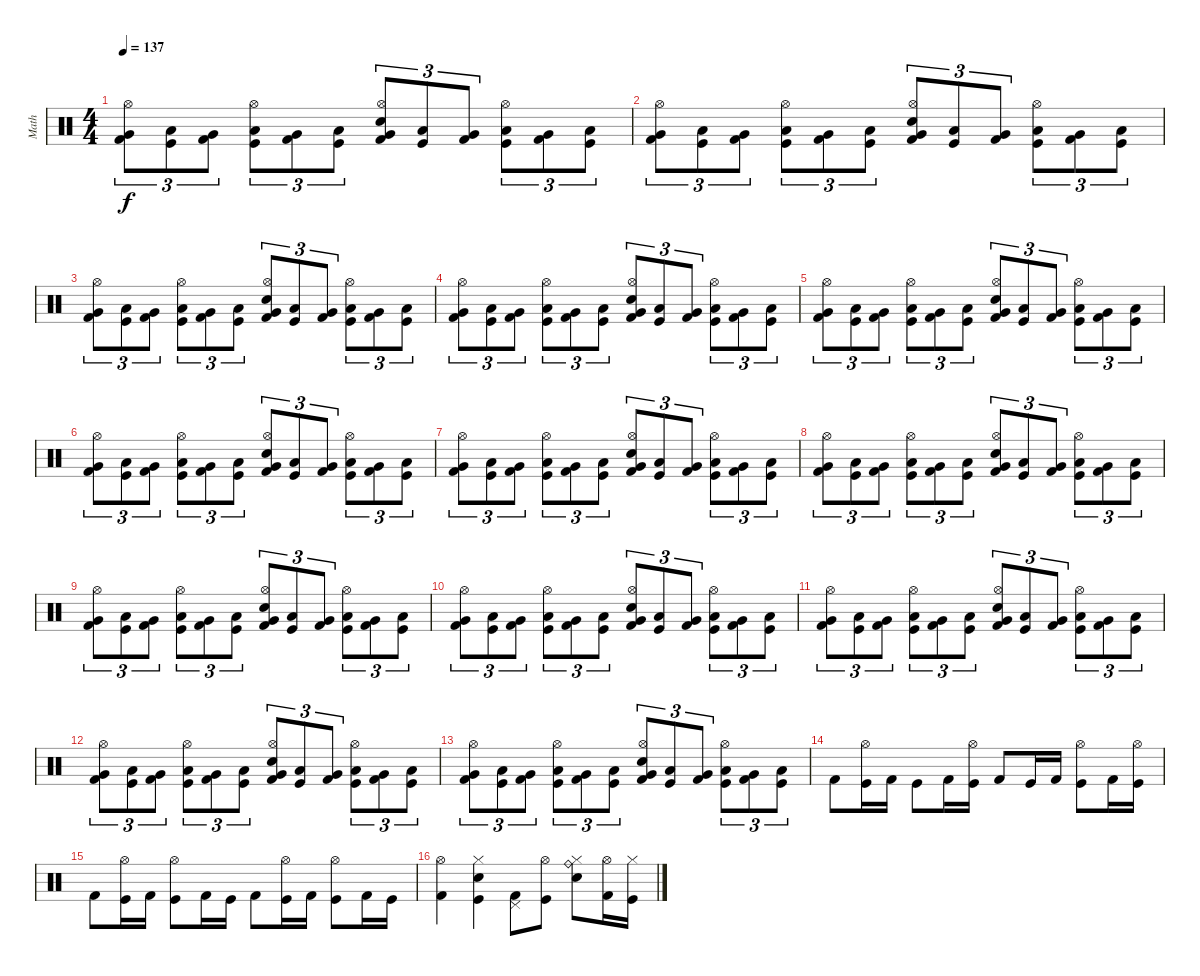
\track ("Math" "Math") {instrument percussion}
\staff {score}
\articulation defaults
\ts (4 4)
\tempo 137
\clef neutral
\ks c
("Kick (hit) 2" "Very Low Tom (hit)" "Hi-Hat (open)").8{tu (3 2) dy f} ("Kick (hit)" "Low Tom (hit)").8{tu (3 2)} ("Kick (hit) 2" "Very Low Tom (hit)").8{tu (3 2)} ("Kick (hit)" "Low Tom (hit)" "Hi-Hat (open)").8{tu (3 2)} ("Kick (hit) 2" "Very Low Tom (hit)").8{tu (3 2)} ("Kick (hit)" "Low Tom (hit)").8{tu (3 2)} ("Kick (hit) 2" "Very Low Tom (hit)" "Snare (hit) 2" "Hi-Hat (open)").8{tu (3 2)} ("Kick (hit)" "Low Tom (hit)").8{tu (3 2)} ("Kick (hit) 2" "Very Low Tom (hit)").8{tu (3 2)} ("Kick (hit)" "Low Tom (hit)" "Hi-Hat (open)").8{tu (3 2)} ("Kick (hit) 2" "Very Low Tom (hit)").8{tu (3 2)} ("Kick (hit)" "Low Tom (hit)").8{tu (3 2)} |
("Kick (hit) 2" "Very Low Tom (hit)" "Hi-Hat (open)").8{tu (3 2)} ("Kick (hit)" "Low Tom (hit)").8{tu (3 2)} ("Kick (hit) 2" "Very Low Tom (hit)").8{tu (3 2)} ("Kick (hit)" "Low Tom (hit)" "Hi-Hat (open)").8{tu (3 2)} ("Kick (hit) 2" "Very Low Tom (hit)").8{tu (3 2)} ("Kick (hit)" "Low Tom (hit)").8{tu (3 2)} ("Kick (hit) 2" "Very Low Tom (hit)" "Snare (hit) 2" "Hi-Hat (open)").8{tu (3 2)} ("Kick (hit)" "Low Tom (hit)").8{tu (3 2)} ("Kick (hit) 2" "Very Low Tom (hit)").8{tu (3 2)} ("Kick (hit)" "Low Tom (hit)" "Hi-Hat (open)").8{tu (3 2)} ("Kick (hit) 2" "Very Low Tom (hit)").8{tu (3 2)} ("Kick (hit)" "Low Tom (hit)").8{tu (3 2)} |
("Kick (hit) 2" "Very Low Tom (hit)" "Hi-Hat (open)").8{tu (3 2)} ("Kick (hit)" "Low Tom (hit)").8{tu (3 2)} ("Kick (hit) 2" "Very Low Tom (hit)").8{tu (3 2)} ("Kick (hit)" "Low Tom (hit)" "Hi-Hat (open)").8{tu (3 2)} ("Kick (hit) 2" "Very Low Tom (hit)").8{tu (3 2)} ("Kick (hit)" "Low Tom (hit)").8{tu (3 2)} ("Kick (hit) 2" "Very Low Tom (hit)" "Snare (hit) 2" "Hi-Hat (open)").8{tu (3 2)} ("Kick (hit)" "Low Tom (hit)").8{tu (3 2)} ("Kick (hit) 2" "Very Low Tom (hit)").8{tu (3 2)} ("Kick (hit)" "Low Tom (hit)" "Hi-Hat (open)").8{tu (3 2)} ("Kick (hit) 2" "Very Low Tom (hit)").8{tu (3 2)} ("Kick (hit)" "Low Tom (hit)").8{tu (3 2)} |
("Kick (hit) 2" "Very Low Tom (hit)" "Hi-Hat (open)").8{tu (3 2)} ("Kick (hit)" "Low Tom (hit)").8{tu (3 2)} ("Kick (hit) 2" "Very Low Tom (hit)").8{tu (3 2)} ("Kick (hit)" "Low Tom (hit)" "Hi-Hat (open)").8{tu (3 2)} ("Kick (hit) 2" "Very Low Tom (hit)").8{tu (3 2)} ("Kick (hit)" "Low Tom (hit)").8{tu (3 2)} ("Kick (hit) 2" "Very Low Tom (hit)" "Snare (hit) 2" "Hi-Hat (open)").8{tu (3 2)} ("Kick (hit)" "Low Tom (hit)").8{tu (3 2)} ("Kick (hit) 2" "Very Low Tom (hit)").8{tu (3 2)} ("Kick (hit)" "Low Tom (hit)" "Hi-Hat (open)").8{tu (3 2)} ("Kick (hit) 2" "Very Low Tom (hit)").8{tu (3 2)} ("Kick (hit)" "Low Tom (hit)").8{tu (3 2)} |
("Kick (hit) 2" "Very Low Tom (hit)" "Hi-Hat (open)").8{tu (3 2)} ("Kick (hit)" "Low Tom (hit)").8{tu (3 2)} ("Kick (hit) 2" "Very Low Tom (hit)").8{tu (3 2)} ("Kick (hit)" "Low Tom (hit)" "Hi-Hat (open)").8{tu (3 2)} ("Kick (hit) 2" "Very Low Tom (hit)").8{tu (3 2)} ("Kick (hit)" "Low Tom (hit)").8{tu (3 2)} ("Kick (hit) 2" "Very Low Tom (hit)" "Snare (hit) 2" "Hi-Hat (open)").8{tu (3 2)} ("Kick (hit)" "Low Tom (hit)").8{tu (3 2)} ("Kick (hit) 2" "Very Low Tom (hit)").8{tu (3 2)} ("Kick (hit)" "Low Tom (hit)" "Hi-Hat (open)").8{tu (3 2)} ("Kick (hit) 2" "Very Low Tom (hit)").8{tu (3 2)} ("Kick (hit)" "Low Tom (hit)").8{tu (3 2)} |
("Kick (hit) 2" "Very Low Tom (hit)" "Hi-Hat (open)").8{tu (3 2)} ("Kick (hit)" "Low Tom (hit)").8{tu (3 2)} ("Kick (hit) 2" "Very Low Tom (hit)").8{tu (3 2)} ("Kick (hit)" "Low Tom (hit)" "Hi-Hat (open)").8{tu (3 2)} ("Kick (hit) 2" "Very Low Tom (hit)").8{tu (3 2)} ("Kick (hit)" "Low Tom (hit)").8{tu (3 2)} ("Kick (hit) 2" "Very Low Tom (hit)" "Snare (hit) 2" "Hi-Hat (open)").8{tu (3 2)} ("Kick (hit)" "Low Tom (hit)").8{tu (3 2)} ("Kick (hit) 2" "Very Low Tom (hit)").8{tu (3 2)} ("Kick (hit)" "Low Tom (hit)" "Hi-Hat (open)").8{tu (3 2)} ("Kick (hit) 2" "Very Low Tom (hit)").8{tu (3 2)} ("Kick (hit)" "Low Tom (hit)").8{tu (3 2)} |
("Kick (hit) 2" "Very Low Tom (hit)" "Hi-Hat (open)").8{tu (3 2)} ("Kick (hit)" "Low Tom (hit)").8{tu (3 2)} ("Kick (hit) 2" "Very Low Tom (hit)").8{tu (3 2)} ("Kick (hit)" "Low Tom (hit)" "Hi-Hat (open)").8{tu (3 2)} ("Kick (hit) 2" "Very Low Tom (hit)").8{tu (3 2)} ("Kick (hit)" "Low Tom (hit)").8{tu (3 2)} ("Kick (hit) 2" "Very Low Tom (hit)" "Snare (hit) 2" "Hi-Hat (open)").8{tu (3 2)} ("Kick (hit)" "Low Tom (hit)").8{tu (3 2)} ("Kick (hit) 2" "Very Low Tom (hit)").8{tu (3 2)} ("Kick (hit)" "Low Tom (hit)" "Hi-Hat (open)").8{tu (3 2)} ("Kick (hit) 2" "Very Low Tom (hit)").8{tu (3 2)} ("Kick (hit)" "Low Tom (hit)").8{tu (3 2)} |
("Kick (hit) 2" "Very Low Tom (hit)" "Hi-Hat (open)").8{tu (3 2)} ("Kick (hit)" "Low Tom (hit)").8{tu (3 2)} ("Kick (hit) 2" "Very Low Tom (hit)").8{tu (3 2)} ("Kick (hit)" "Low Tom (hit)" "Hi-Hat (open)").8{tu (3 2)} ("Kick (hit) 2" "Very Low Tom (hit)").8{tu (3 2)} ("Kick (hit)" "Low Tom (hit)").8{tu (3 2)} ("Kick (hit) 2" "Very Low Tom (hit)" "Snare (hit) 2" "Hi-Hat (open)").8{tu (3 2)} ("Kick (hit)" "Low Tom (hit)").8{tu (3 2)} ("Kick (hit) 2" "Very Low Tom (hit)").8{tu (3 2)} ("Kick (hit)" "Low Tom (hit)" "Hi-Hat (open)").8{tu (3 2)} ("Kick (hit) 2" "Very Low Tom (hit)").8{tu (3 2)} ("Kick (hit)" "Low Tom (hit)").8{tu (3 2)} |
("Kick (hit) 2" "Very Low Tom (hit)" "Hi-Hat (open)").8{tu (3 2)} ("Kick (hit)" "Low Tom (hit)").8{tu (3 2)} ("Kick (hit) 2" "Very Low Tom (hit)").8{tu (3 2)} ("Kick (hit)" "Low Tom (hit)" "Hi-Hat (open)").8{tu (3 2)} ("Kick (hit) 2" "Very Low Tom (hit)").8{tu (3 2)} ("Kick (hit)" "Low Tom (hit)").8{tu (3 2)} ("Kick (hit) 2" "Very Low Tom (hit)" "Snare (hit) 2" "Hi-Hat (open)").8{tu (3 2)} ("Kick (hit)" "Low Tom (hit)").8{tu (3 2)} ("Kick (hit) 2" "Very Low Tom (hit)").8{tu (3 2)} ("Kick (hit)" "Low Tom (hit)" "Hi-Hat (open)").8{tu (3 2)} ("Kick (hit) 2" "Very Low Tom (hit)").8{tu (3 2)} ("Kick (hit)" "Low Tom (hit)").8{tu (3 2)} |
("Kick (hit) 2" "Very Low Tom (hit)" "Hi-Hat (open)").8{tu (3 2)} ("Kick (hit)" "Low Tom (hit)").8{tu (3 2)} ("Kick (hit) 2" "Very Low Tom (hit)").8{tu (3 2)} ("Kick (hit)" "Low Tom (hit)" "Hi-Hat (open)").8{tu (3 2)} ("Kick (hit) 2" "Very Low Tom (hit)").8{tu (3 2)} ("Kick (hit)" "Low Tom (hit)").8{tu (3 2)} ("Kick (hit) 2" "Very Low Tom (hit)" "Snare (hit) 2" "Hi-Hat (open)").8{tu (3 2)} ("Kick (hit)" "Low Tom (hit)").8{tu (3 2)} ("Kick (hit) 2" "Very Low Tom (hit)").8{tu (3 2)} ("Kick (hit)" "Low Tom (hit)" "Hi-Hat (open)").8{tu (3 2)} ("Kick (hit) 2" "Very Low Tom (hit)").8{tu (3 2)} ("Kick (hit)" "Low Tom (hit)").8{tu (3 2)} |
("Kick (hit) 2" "Very Low Tom (hit)" "Hi-Hat (open)").8{tu (3 2)} ("Kick (hit)" "Low Tom (hit)").8{tu (3 2)} ("Kick (hit) 2" "Very Low Tom (hit)").8{tu (3 2)} ("Kick (hit)" "Low Tom (hit)" "Hi-Hat (open)").8{tu (3 2)} ("Kick (hit) 2" "Very Low Tom (hit)").8{tu (3 2)} ("Kick (hit)" "Low Tom (hit)").8{tu (3 2)} ("Kick (hit) 2" "Very Low Tom (hit)" "Snare (hit) 2" "Hi-Hat (open)").8{tu (3 2)} ("Kick (hit)" "Low Tom (hit)").8{tu (3 2)} ("Kick (hit) 2" "Very Low Tom (hit)").8{tu (3 2)} ("Kick (hit)" "Low Tom (hit)" "Hi-Hat (open)").8{tu (3 2)} ("Kick (hit) 2" "Very Low Tom (hit)").8{tu (3 2)} ("Kick (hit)" "Low Tom (hit)").8{tu (3 2)} |
("Kick (hit) 2" "Very Low Tom (hit)" "Hi-Hat (open)").8{tu (3 2)} ("Kick (hit)" "Low Tom (hit)").8{tu (3 2)} ("Kick (hit) 2" "Very Low Tom (hit)").8{tu (3 2)} ("Kick (hit)" "Low Tom (hit)" "Hi-Hat (open)").8{tu (3 2)} ("Kick (hit) 2" "Very Low Tom (hit)").8{tu (3 2)} ("Kick (hit)" "Low Tom (hit)").8{tu (3 2)} ("Kick (hit) 2" "Very Low Tom (hit)" "Snare (hit) 2" "Hi-Hat (open)").8{tu (3 2)} ("Kick (hit)" "Low Tom (hit)").8{tu (3 2)} ("Kick (hit) 2" "Very Low Tom (hit)").8{tu (3 2)} ("Kick (hit)" "Low Tom (hit)" "Hi-Hat (open)").8{tu (3 2)} ("Kick (hit) 2" "Very Low Tom (hit)").8{tu (3 2)} ("Kick (hit)" "Low Tom (hit)").8{tu (3 2)} |
("Kick (hit) 2" "Very Low Tom (hit)" "Hi-Hat (open)").8{tu (3 2)} ("Kick (hit)" "Low Tom (hit)").8{tu (3 2)} ("Kick (hit) 2" "Very Low Tom (hit)").8{tu (3 2)} ("Kick (hit)" "Low Tom (hit)" "Hi-Hat (open)").8{tu (3 2)} ("Kick (hit) 2" "Very Low Tom (hit)").8{tu (3 2)} ("Kick (hit)" "Low Tom (hit)").8{tu (3 2)} ("Kick (hit) 2" "Very Low Tom (hit)" "Snare (hit) 2" "Hi-Hat (open)").8{tu (3 2)} ("Kick (hit)" "Low Tom (hit)").8{tu (3 2)} ("Kick (hit) 2" "Very Low Tom (hit)").8{tu (3 2)} ("Kick (hit)" "Low Tom (hit)" "Hi-Hat (open)").8{tu (3 2)} ("Kick (hit) 2" "Very Low Tom (hit)").8{tu (3 2)} ("Kick (hit)" "Low Tom (hit)").8{tu (3 2)} |
"Kick (hit) 2".8 ("Kick (hit)" "Hi-Hat (open)").16 "Kick (hit) 2".16 "Kick (hit)".8 "Kick (hit) 2".16 ("Kick (hit)" "Hi-Hat (open)").16 "Kick (hit) 2".8 "Kick (hit)".16 "Kick (hit) 2".16 ("Kick (hit)" "Hi-Hat (open)").8 "Kick (hit) 2".16 ("Kick (hit)" "Hi-Hat (open)").16 |
"Kick (hit) 2".8 ("Kick (hit)" "Hi-Hat (open)").16 "Kick (hit) 2".16 ("Kick (hit)" "Hi-Hat (open)").8 "Kick (hit) 2".16 "Kick (hit)".16 "Kick (hit) 2".8 ("Kick (hit)" "Hi-Hat (open)").16 "Kick (hit) 2".16 ("Kick (hit)" "Hi-Hat (open)").8 "Kick (hit) 2".16 "Kick (hit)".16 |
("Hi-Hat (open)" "Kick (hit) 2").4 ("Kick (hit)" "Hi-Hat (closed)" "Snare (hit) 2").4 ("Pedal Hi-Hat (hit)" "Kick (hit) 2").8 ("Hi-Hat (open)" "Kick (hit)").8 ("Ride (bell)" "Hi-Hat (closed)" "Snare (hit) 2").8 ("Hi-Hat (open)" "Kick (hit) 2").16 ("Hi-Hat (closed)" "Kick (hit)").16
